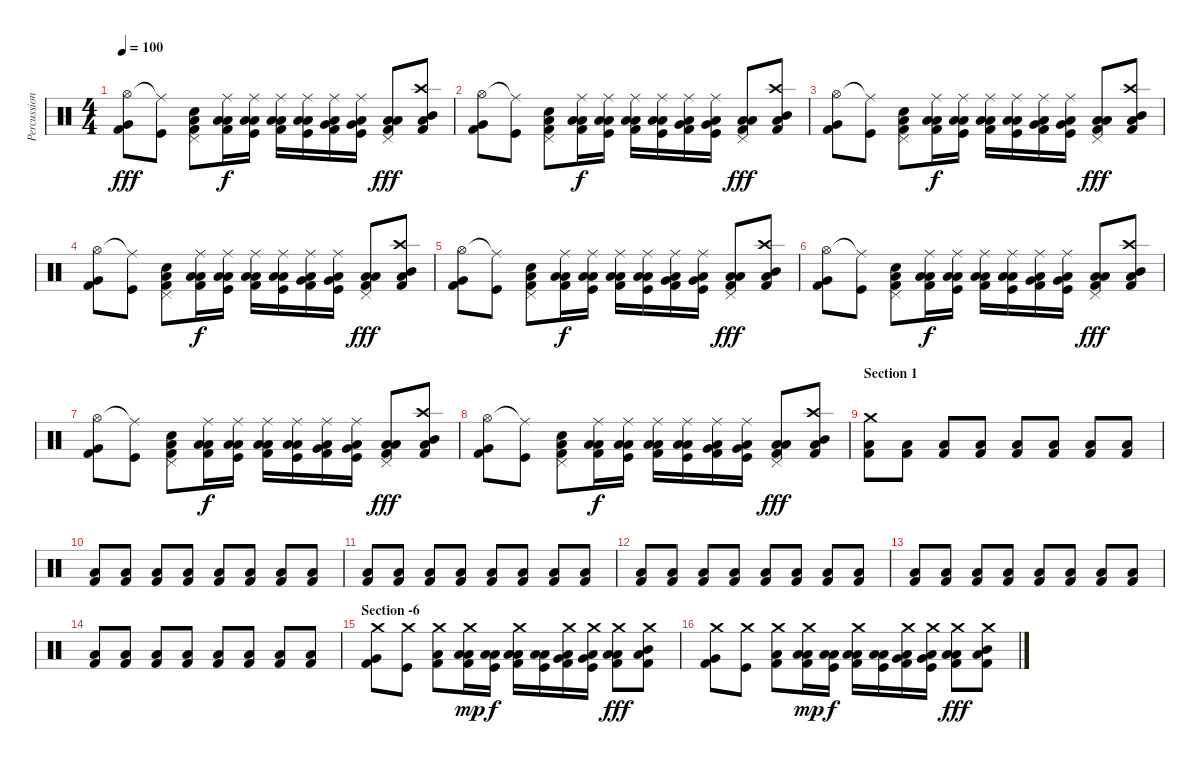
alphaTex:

\track ("Percussion" "Percussion") {instrument percussion}
\staff {score}
\articulation defaults
\ts (4 4)
\tempo 100
\clef neutral
\ks c
("Hi-Hat (open)" "Kick (hit) 2" "Very Low Tom (hit)").8{dy fff} ("Ride (middle)"{t} "Kick (hit)").8 ("Pedal Hi-Hat (hit)" "Kick (hit) 2" "Low Floor Tom (hit)" "Snare (hit) 2").8 ("Ride (middle)" "Kick (hit) 2" "Low Floor Tom (hit)" "Low Tom (hit)").16{dy f} ("Ride (middle)" "Kick (hit)" "Low Floor Tom (hit)" "Low Tom (hit)").16 ("Ride (middle)" "Kick (hit) 2" "Low Floor Tom (hit)" "Low Tom (hit)").16 ("Ride (middle)" "Kick (hit)" "Low Floor Tom (hit)" "Low Tom (hit)").16 ("Ride (middle)" "Kick (hit) 2" "Low Floor Tom (hit)" "Very Low Tom (hit)").16 ("Ride (middle)" "Kick (hit)" "Low Floor Tom (hit)" "Very Low Tom (hit)").16 ("Pedal Hi-Hat (hit)" "Kick (hit) 2" "Low Floor Tom (hit)" "Low Floor Tom (hit)").8{dy fff} ("Crash high (hit)" "Kick (hit) 2" "Low Floor Tom (hit)" "Mid Tom (hit)").8 |
("Hi-Hat (open)" "Kick (hit) 2" "Very Low Tom (hit)").8 ("Ride (middle)"{t} "Kick (hit)").8 ("Pedal Hi-Hat (hit)" "Kick (hit) 2" "Low Floor Tom (hit)" "Snare (hit) 2").8 ("Ride (middle)" "Kick (hit) 2" "Low Floor Tom (hit)" "Low Tom (hit)").16{dy f} ("Ride (middle)" "Kick (hit)" "Low Floor Tom (hit)" "Low Tom (hit)").16 ("Ride (middle)" "Kick (hit) 2" "Low Floor Tom (hit)" "Low Tom (hit)").16 ("Ride (middle)" "Kick (hit)" "Low Floor Tom (hit)" "Low Tom (hit)").16 ("Ride (middle)" "Kick (hit) 2" "Low Floor Tom (hit)" "Very Low Tom (hit)").16 ("Ride (middle)" "Kick (hit)" "Low Floor Tom (hit)" "Very Low Tom (hit)").16 ("Pedal Hi-Hat (hit)" "Kick (hit) 2" "Low Floor Tom (hit)" "Low Floor Tom (hit)").8{dy fff} ("Crash high (hit)" "Kick (hit) 2" "Low Floor Tom (hit)" "Mid Tom (hit)").8 |
("Hi-Hat (open)" "Kick (hit) 2" "Very Low Tom (hit)").8 ("Ride (middle)"{t} "Kick (hit)").8 ("Pedal Hi-Hat (hit)" "Kick (hit) 2" "Low Floor Tom (hit)" "Snare (hit) 2").8 ("Ride (middle)" "Kick (hit) 2" "Low Floor Tom (hit)" "Low Tom (hit)").16{dy f} ("Ride (middle)" "Kick (hit)" "Low Floor Tom (hit)" "Low Tom (hit)").16 ("Ride (middle)" "Kick (hit) 2" "Low Floor Tom (hit)" "Low Tom (hit)").16 ("Ride (middle)" "Kick (hit)" "Low Floor Tom (hit)" "Low Tom (hit)").16 ("Ride (middle)" "Kick (hit) 2" "Low Floor Tom (hit)" "Very Low Tom (hit)").16 ("Ride (middle)" "Kick (hit)" "Low Floor Tom (hit)" "Very Low Tom (hit)").16 ("Pedal Hi-Hat (hit)" "Kick (hit) 2" "Low Floor Tom (hit)" "Low Floor Tom (hit)").8{dy fff} ("Crash high (hit)" "Kick (hit) 2" "Low Floor Tom (hit)" "Mid Tom (hit)").8 |
("Hi-Hat (open)" "Kick (hit) 2" "Very Low Tom (hit)").8 ("Ride (middle)"{t} "Kick (hit)").8 ("Pedal Hi-Hat (hit)" "Kick (hit) 2" "Low Floor Tom (hit)" "Snare (hit) 2").8 ("Ride (middle)" "Kick (hit) 2" "Low Floor Tom (hit)" "Low Tom (hit)").16{dy f} ("Ride (middle)" "Kick (hit)" "Low Floor Tom (hit)" "Low Tom (hit)").16 ("Ride (middle)" "Kick (hit) 2" "Low Floor Tom (hit)" "Low Tom (hit)").16 ("Ride (middle)" "Kick (hit)" "Low Floor Tom (hit)" "Low Tom (hit)").16 ("Ride (middle)" "Kick (hit) 2" "Low Floor Tom (hit)" "Very Low Tom (hit)").16 ("Ride (middle)" "Kick (hit)" "Low Floor Tom (hit)" "Very Low Tom (hit)").16 ("Pedal Hi-Hat (hit)" "Kick (hit) 2" "Low Floor Tom (hit)" "Low Floor Tom (hit)").8{dy fff} ("Crash high (hit)" "Kick (hit) 2" "Low Floor Tom (hit)" "Mid Tom (hit)").8 |
("Hi-Hat (open)" "Kick (hit) 2" "Very Low Tom (hit)").8 ("Ride (middle)"{t} "Kick (hit)").8 ("Pedal Hi-Hat (hit)" "Kick (hit) 2" "Low Floor Tom (hit)" "Snare (hit) 2").8 ("Ride (middle)" "Kick (hit) 2" "Low Floor Tom (hit)" "Low Tom (hit)").16{dy f} ("Ride (middle)" "Kick (hit)" "Low Floor Tom (hit)" "Low Tom (hit)").16 ("Ride (middle)" "Kick (hit) 2" "Low Floor Tom (hit)" "Low Tom (hit)").16 ("Ride (middle)" "Kick (hit)" "Low Floor Tom (hit)" "Low Tom (hit)").16 ("Ride (middle)" "Kick (hit) 2" "Low Floor Tom (hit)" "Very Low Tom (hit)").16 ("Ride (middle)" "Kick (hit)" "Low Floor Tom (hit)" "Very Low Tom (hit)").16 ("Pedal Hi-Hat (hit)" "Kick (hit) 2" "Low Floor Tom (hit)" "Low Floor Tom (hit)").8{dy fff} ("Crash high (hit)" "Kick (hit) 2" "Low Floor Tom (hit)" "Mid Tom (hit)").8 |
("Hi-Hat (open)" "Kick (hit) 2" "Very Low Tom (hit)").8 ("Ride (middle)"{t} "Kick (hit)").8 ("Pedal Hi-Hat (hit)" "Kick (hit) 2" "Low Floor Tom (hit)" "Snare (hit) 2").8 ("Ride (middle)" "Kick (hit) 2" "Low Floor Tom (hit)" "Low Tom (hit)").16{dy f} ("Ride (middle)" "Kick (hit)" "Low Floor Tom (hit)" "Low Tom (hit)").16 ("Ride (middle)" "Kick (hit) 2" "Low Floor Tom (hit)" "Low Tom (hit)").16 ("Ride (middle)" "Kick (hit)" "Low Floor Tom (hit)" "Low Tom (hit)").16 ("Ride (middle)" "Kick (hit) 2" "Low Floor Tom (hit)" "Very Low Tom (hit)").16 ("Ride (middle)" "Kick (hit)" "Low Floor Tom (hit)" "Very Low Tom (hit)").16 ("Pedal Hi-Hat (hit)" "Kick (hit) 2" "Low Floor Tom (hit)" "Low Floor Tom (hit)").8{dy fff} ("Crash high (hit)" "Kick (hit) 2" "Low Floor Tom (hit)" "Mid Tom (hit)").8 |
("Hi-Hat (open)" "Kick (hit) 2" "Very Low Tom (hit)").8 ("Ride (middle)"{t} "Kick (hit)").8 ("Pedal Hi-Hat (hit)" "Kick (hit) 2" "Low Floor Tom (hit)" "Snare (hit) 2").8 ("Ride (middle)" "Kick (hit) 2" "Low Floor Tom (hit)" "Low Tom (hit)").16{dy f} ("Ride (middle)" "Kick (hit)" "Low Floor Tom (hit)" "Low Tom (hit)").16 ("Ride (middle)" "Kick (hit) 2" "Low Floor Tom (hit)" "Low Tom (hit)").16 ("Ride (middle)" "Kick (hit)" "Low Floor Tom (hit)" "Low Tom (hit)").16 ("Ride (middle)" "Kick (hit) 2" "Low Floor Tom (hit)" "Very Low Tom (hit)").16 ("Ride (middle)" "Kick (hit)" "Low Floor Tom (hit)" "Very Low Tom (hit)").16 ("Pedal Hi-Hat (hit)" "Kick (hit) 2" "Low Floor Tom (hit)" "Low Floor Tom (hit)").8{dy fff} ("Crash high (hit)" "Kick (hit) 2" "Low Floor Tom (hit)" "Mid Tom (hit)").8 |
("Hi-Hat (open)" "Kick (hit) 2" "Very Low Tom (hit)").8 ("Ride (middle)"{t} "Kick (hit)").8 ("Pedal Hi-Hat (hit)" "Kick (hit) 2" "Low Floor Tom (hit)" "Snare (hit) 2").8 ("Ride (middle)" "Kick (hit) 2" "Low Floor Tom (hit)" "Low Tom (hit)").16{dy f} ("Ride (middle)" "Kick (hit)" "Low Floor Tom (hit)" "Low Tom (hit)").16 ("Ride (middle)" "Kick (hit) 2" "Low Floor Tom (hit)" "Low Tom (hit)").16 ("Ride (middle)" "Kick (hit)" "Low Floor Tom (hit)" "Low Tom (hit)").16 ("Ride (middle)" "Kick (hit) 2" "Low Floor Tom (hit)" "Very Low Tom (hit)").16 ("Ride (middle)" "Kick (hit)" "Low Floor Tom (hit)" "Very Low Tom (hit)").16 ("Pedal Hi-Hat (hit)" "Kick (hit) 2" "Low Floor Tom (hit)" "Low Floor Tom (hit)").8{dy fff} ("Crash high (hit)" "Kick (hit) 2" "Low Floor Tom (hit)" "Mid Tom (hit)").8 |
\section ("" "Section 1")
("Crash medium (hit)" "Kick (hit) 2" "Low Floor Tom (hit)").8{volume 16 balance 11} ("Kick (hit) 2" "Low Floor Tom (hit)").8 ("Kick (hit) 2" "Low Floor Tom (hit)").8 ("Kick (hit) 2" "Low Floor Tom (hit)").8 ("Kick (hit) 2" "Low Floor Tom (hit)").8 ("Kick (hit) 2" "Low Floor Tom (hit)").8 ("Kick (hit) 2" "Low Floor Tom (hit)").8 ("Kick (hit) 2" "Low Floor Tom (hit)").8 |
("Kick (hit) 2" "Low Floor Tom (hit)").8 ("Kick (hit) 2" "Low Floor Tom (hit)").8 ("Kick (hit) 2" "Low Floor Tom (hit)").8 ("Kick (hit) 2" "Low Floor Tom (hit)").8 ("Kick (hit) 2" "Low Floor Tom (hit)").8 ("Kick (hit) 2" "Low Floor Tom (hit)").8 ("Kick (hit) 2" "Low Floor Tom (hit)").8 ("Kick (hit) 2" "Low Floor Tom (hit)").8 |
("Kick (hit) 2" "Low Floor Tom (hit)").8{volume 16 balance 11} ("Kick (hit) 2" "Low Floor Tom (hit)").8 ("Kick (hit) 2" "Low Floor Tom (hit)").8 ("Kick (hit) 2" "Low Floor Tom (hit)").8 ("Kick (hit) 2" "Low Floor Tom (hit)").8 ("Kick (hit) 2" "Low Floor Tom (hit)").8 ("Kick (hit) 2" "Low Floor Tom (hit)").8 ("Kick (hit) 2" "Low Floor Tom (hit)").8 |
("Kick (hit) 2" "Low Floor Tom (hit)").8 ("Kick (hit) 2" "Low Floor Tom (hit)").8 ("Kick (hit) 2" "Low Floor Tom (hit)").8 ("Kick (hit) 2" "Low Floor Tom (hit)").8 ("Kick (hit) 2" "Low Floor Tom (hit)").8 ("Kick (hit) 2" "Low Floor Tom (hit)").8 ("Kick (hit) 2" "Low Floor Tom (hit)").8 ("Kick (hit) 2" "Low Floor Tom (hit)").8 |
("Kick (hit) 2" "Low Floor Tom (hit)").8{volume 16 balance 11} ("Kick (hit) 2" "Low Floor Tom (hit)").8 ("Kick (hit) 2" "Low Floor Tom (hit)").8 ("Kick (hit) 2" "Low Floor Tom (hit)").8 ("Kick (hit) 2" "Low Floor Tom (hit)").8 ("Kick (hit) 2" "Low Floor Tom (hit)").8 ("Kick (hit) 2" "Low Floor Tom (hit)").8 ("Kick (hit) 2" "Low Floor Tom (hit)").8 |
("Kick (hit) 2" "Low Floor Tom (hit)").8 ("Kick (hit) 2" "Low Floor Tom (hit)").8 ("Kick (hit) 2" "Low Floor Tom (hit)").8 ("Kick (hit) 2" "Low Floor Tom (hit)").8 ("Kick (hit) 2" "Low Floor Tom (hit)").8 ("Kick (hit) 2" "Low Floor Tom (hit)").8 ("Kick (hit) 2" "Low Floor Tom (hit)").8 ("Kick (hit) 2" "Low Floor Tom (hit)").8 |
\section ("" "Section -6")
("Crash medium (hit)" "Kick (hit) 2" "Very Low Tom (hit)").8{volume 16} ("Crash medium (hit)" "Kick (hit)").8 ("Crash medium (hit)" "Kick (hit) 2" "Low Floor Tom (hit)").8 ("Crash medium (hit)" "Kick (hit) 2" "Low Floor Tom (hit)" "Low Tom (hit)").16{dy mp} ("Kick (hit)" "Low Floor Tom (hit)" "Low Tom (hit)").16{dy f} ("Crash medium (hit)" "Kick (hit) 2" "Low Floor Tom (hit)" "Low Tom (hit)").16 ("Kick (hit)" "Low Floor Tom (hit)" "Low Tom (hit)").16 ("Crash medium (hit)" "Kick (hit) 2" "Low Floor Tom (hit)" "Very Low Tom (hit)").16 ("Crash medium (hit)" "Kick (hit)" "Low Floor Tom (hit)" "Very Low Tom (hit)").16 ("Crash medium (hit)" "Kick (hit) 2" "Low Floor Tom (hit)" "Low Floor Tom (hit)").8{dy fff} ("Crash medium (hit)" "Kick (hit) 2" "Low Floor Tom (hit)" "Mid Tom (hit)").8 |
("Crash medium (hit)" "Kick (hit) 2" "Very Low Tom (hit)").8 ("Crash medium (hit)" "Kick (hit)").8 ("Crash medium (hit)" "Kick (hit) 2" "Low Floor Tom (hit)").8 ("Crash medium (hit)" "Kick (hit) 2" "Low Floor Tom (hit)" "Low Tom (hit)").16{dy mp} ("Kick (hit)" "Low Floor Tom (hit)" "Low Tom (hit)").16{dy f} ("Crash medium (hit)" "Kick (hit) 2" "Low Floor Tom (hit)" "Low Tom (hit)").16 ("Kick (hit)" "Low Floor Tom (hit)" "Low Tom (hit)").16 ("Crash medium (hit)" "Kick (hit) 2" "Low Floor Tom (hit)" "Very Low Tom (hit)").16 ("Crash medium (hit)" "Kick (hit)" "Low Floor Tom (hit)" "Very Low Tom (hit)").16 ("Crash medium (hit)" "Kick (hit) 2" "Low Floor Tom (hit)" "Low Floor Tom (hit)").8{dy fff} ("Crash medium (hit)" "Kick (hit) 2" "Low Floor Tom (hit)" "Mid Tom (hit)").8
